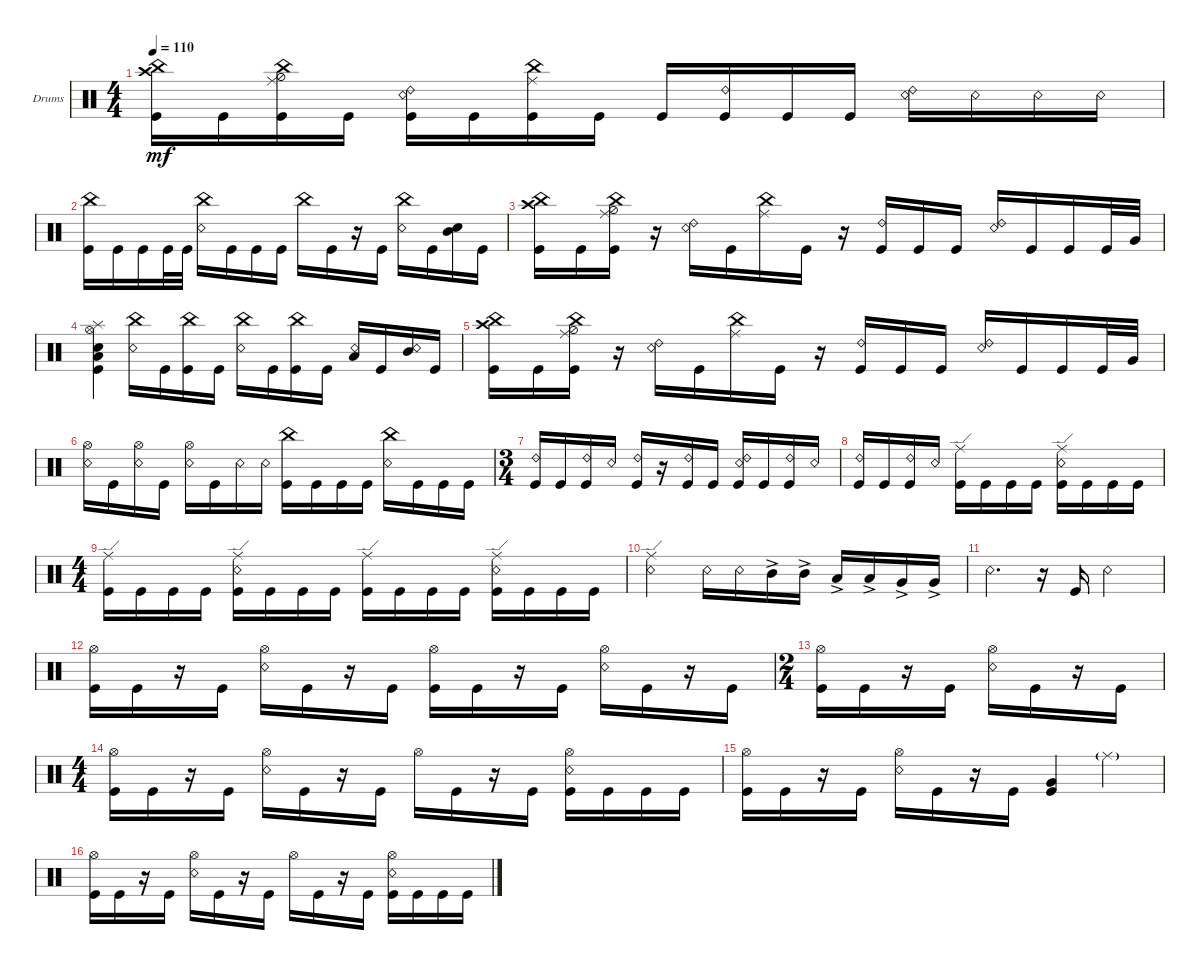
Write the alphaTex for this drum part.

\defaultSystemsLayout 4
\bracketExtendMode groupsimilarinstruments
\firstSystemTrackNameOrientation horizontal
\otherSystemsTrackNameOrientation horizontal
\track ("Drumkit" "Drums") {instrument percussion}
\staff {score}
\articulation defaults
\ts (4 4)
\scale
0.48201
\tempo 110
\accidentals auto
\clef neutral
\ottava regular
\simile none
\ks c
("Crash high (hit)" "China (hit)" "Kick (hit)").16{dy mf} "Kick (hit)".16 ("Kick (hit)" "Ride (middle)" "Hi-Hat (half)" "China (hit)").16 "Kick (hit)".16 ("Snare (rim shot)" "Ride (bell) 2" "Kick (hit)").16 "Kick (hit)".16 ("Ride (middle)" "China (hit)" "Kick (hit)").16 "Kick (hit)".16 "Kick (hit)".16 ("Kick (hit)" "Ride (bell) 2").16 "Kick (hit)".16 "Kick (hit)".16 ("Snare (rim shot)" "Ride (bell) 2").16 "Snare (rim shot)".16 "Snare (rim shot)".16 "Snare (rim shot)".16 |
\scale
0.527728 ("China (hit)" "Kick (hit)").16 "Kick (hit)".16 "Kick (hit)".16 "Kick (hit)".32 "Kick (hit)".32 ("Snare (rim shot)" "China (hit)").16 "Kick (hit)".16 "Kick (hit)".16 "Kick (hit)".16 "China (hit)".16 "Kick (hit)".16 r.16 "Kick (hit)".16 ("Snare (rim shot)" "China (hit)").16 "Kick (hit)".16 ("Mid Tom (hit)" "Snare (hit) 2").16 "Kick (hit)".16 |
\scale
0.472272 ("Crash high (hit)" "China (hit)" "Kick (hit)").16 "Kick (hit)".16 ("Kick (hit)" "Ride (middle)" "Hi-Hat (half)" "China (hit)").16 r.16 ("Snare (rim shot)" "Ride (bell) 2").16 "Kick (hit)".16 ("Ride (middle)" "China (hit)").16 "Kick (hit)".16 r.16 ("Kick (hit)" "Ride (bell) 2").16 "Kick (hit)".16 "Kick (hit)".16 ("Snare (rim shot)" "Ride (bell) 2").16 "Kick (hit)".16 "Kick (hit)".16 "Kick (hit)".32 "Very Low Tom (hit)".32 |
\scale
0.527728 ("Kick (hit)" "Snare (hit) 2" "Low Tom (hit)" "Splash (hit)" "Hi-Hat (open)").4 ("Snare (rim shot)" "China (hit)").16 "Kick (hit)".16 ("China (hit)" "Kick (hit)").16 "Kick (hit)".16 ("Snare (rim shot)" "China (hit)").16 "Kick (hit)".16 ("China (hit)" "Kick (hit)").16 "Kick (hit)".16 ("Snare (rim shot)" "Low Tom (hit)").16 "Kick (hit)".16 ("Mid Tom (hit)" "Snare (rim shot)").16 "Kick (hit)".16 |
\scale
0.472272 ("Crash high (hit)" "China (hit)" "Kick (hit)").16 "Kick (hit)".16 ("Kick (hit)" "Ride (middle)" "Hi-Hat (half)" "China (hit)").16 r.16 ("Snare (rim shot)" "Ride (bell) 2").16 "Kick (hit)".16 ("Ride (middle)" "China (hit)").16 "Kick (hit)".16 r.16 ("Kick (hit)" "Ride (bell) 2").16 "Kick (hit)".16 "Kick (hit)".16 ("Snare (rim shot)" "Ride (bell) 2").16 "Kick (hit)".16 "Kick (hit)".16 "Kick (hit)".32 "Very Low Tom (hit)".32 |
("Snare (rim shot)" "Hi-Hat (open)").16 "Kick (hit)".16 ("Snare (rim shot)" "Hi-Hat (open)").16 "Kick (hit)".16 ("Snare (rim shot)" "Hi-Hat (open)").16 "Kick (hit)".16 "Snare (rim shot)".16 "Snare (rim shot)".16 ("Kick (hit)" "China (hit)").16 "Kick (hit)".16 "Kick (hit)".16 "Kick (hit)".16 ("Snare (rim shot)" "China (hit)").16 "Kick (hit)".16 "Kick (hit)".16 "Kick (hit)".16 |
\ts (3 4)
("Kick (hit)" "Ride (bell) 2").16 "Kick (hit)".16 ("Kick (hit)" "Ride (bell) 2").16 "Snare (rim shot)".16 ("Kick (hit)" "Ride (bell) 2").16 r.16 ("Kick (hit)" "Ride (bell) 2").16 "Kick (hit)".16 ("Kick (hit)" "Ride (bell) 2" "Snare (rim shot)").16 "Kick (hit)".16 ("Kick (hit)" "Ride (bell) 2").16 "Snare (rim shot)".16 |
("Kick (hit)" "Ride (bell) 2").16 "Kick (hit)".16 ("Kick (hit)" "Ride (bell) 2").16 "Snare (rim shot)".16 ("Kick (hit)" "Ride (edge)").16 "Kick (hit)".16 "Kick (hit)".16 "Kick (hit)".16 ("Kick (hit)" "Ride (edge)" "Snare (rim shot)").16 "Kick (hit)".16 "Kick (hit)".16 "Kick (hit)".16 |
\ts (4 4)
("Kick (hit)" "Ride (edge)").16 "Kick (hit)".16 "Kick (hit)".16 "Kick (hit)".16 ("Kick (hit)" "Ride (edge)" "Snare (rim shot)").16 "Kick (hit)".16 "Kick (hit)".16 "Kick (hit)".16 ("Kick (hit)" "Ride (edge)").16 "Kick (hit)".16 "Kick (hit)".16 "Kick (hit)".16 ("Kick (hit)" "Ride (edge)" "Snare (rim shot)").16 "Kick (hit)".16 "Kick (hit)".16 "Kick (hit)".16 |
("Snare (rim shot)" "Ride (edge)").2 "Snare (rim shot)".16 "Snare (rim shot)".16 "Mid Tom (hit)"{ac}.16 "Mid Tom (hit)"{ac}.16 "Low Tom (hit)"{ac}.16 "Low Tom (hit)"{ac}.16 "Very Low Tom (hit)"{ac}.16 "Very Low Tom (hit)"{ac}.16 |
"Snare (rim shot)".4{d} r.16 "Kick (hit)".16 "Snare (rim shot)".2 |
("Kick (hit)" "Hi-Hat (open)").16 "Kick (hit)".16 r.16 "Kick (hit)".16 ("Snare (rim shot)" "Hi-Hat (open)").16 "Kick (hit)".16 r.16 "Kick (hit)".16 ("Kick (hit)" "Hi-Hat (open)").16 "Kick (hit)".16 r.16 "Kick (hit)".16 ("Snare (rim shot)" "Hi-Hat (open)").16 "Kick (hit)".16 r.16 "Kick (hit)".16 |
\ts (2 4)
("Kick (hit)" "Hi-Hat (open)").16 "Kick (hit)".16 r.16 "Kick (hit)".16 ("Snare (rim shot)" "Hi-Hat (open)").16 "Kick (hit)".16 r.16 "Kick (hit)".16 |
\ts (4 4)
("Kick (hit)" "Hi-Hat (open)").16 "Kick (hit)".16 r.16 "Kick (hit)".16 ("Snare (rim shot)" "Hi-Hat (open)").16 "Kick (hit)".16 r.16 "Kick (hit)".16 "Hi-Hat (open)".16 "Kick (hit)".16 r.16 "Kick (hit)".16 ("Snare (rim shot)" "Hi-Hat (open)" "Kick (hit)").16 "Kick (hit)".16 "Kick (hit)".16 "Kick (hit)".16 |
("Kick (hit)" "Hi-Hat (open)").16 "Kick (hit)".16 r.16 "Kick (hit)".16 ("Snare (rim shot)" "Hi-Hat (open)").16 "Kick (hit)".16 r.16 "Kick (hit)".16 ("Kick (hit)" "Very Low Tom (hit)").4 "Ride (middle)"{g}.4 |
("Kick (hit)" "Hi-Hat (open)").16 "Kick (hit)".16 r.16 "Kick (hit)".16 ("Snare (rim shot)" "Hi-Hat (open)").16 "Kick (hit)".16 r.16 "Kick (hit)".16 "Hi-Hat (open)".16 "Kick (hit)".16 r.16 "Kick (hit)".16 ("Snare (rim shot)" "Hi-Hat (open)" "Kick (hit)").16 "Kick (hit)".16 "Kick (hit)".16 "Kick (hit)".16
